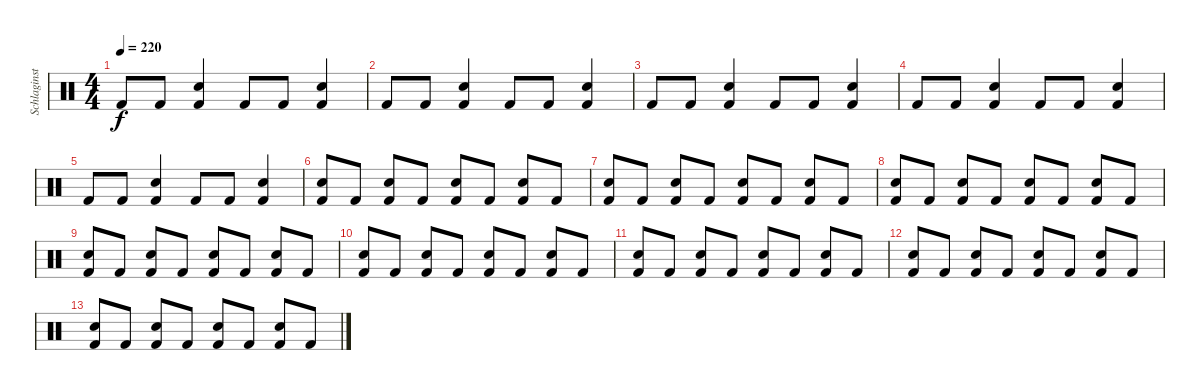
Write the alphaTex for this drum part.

\track ("Schlaginstrumente - Auswahl" "Schlaginst") {instrument percussion}
\staff {score}
\articulation defaults
\ts (4 4)
\tempo 220
\clef neutral
\ks c "Kick (hit) 2".8{dy f} "Kick (hit) 2".8
("Snare (hit) 2" "Kick (hit) 2").4 "Kick (hit) 2".8 "Kick (hit) 2".8 ("Snare (hit) 2" "Kick (hit) 2").4 |
"Kick (hit) 2".8 "Kick (hit) 2".8 ("Snare (hit) 2" "Kick (hit) 2").4 "Kick (hit) 2".8 "Kick (hit) 2".8 ("Snare (hit) 2" "Kick (hit) 2").4 |
"Kick (hit) 2".8 "Kick (hit) 2".8 ("Snare (hit) 2" "Kick (hit) 2").4 "Kick (hit) 2".8 "Kick (hit) 2".8 ("Snare (hit) 2" "Kick (hit) 2").4 |
"Kick (hit) 2".8 "Kick (hit) 2".8 ("Snare (hit) 2" "Kick (hit) 2").4 "Kick (hit) 2".8 "Kick (hit) 2".8 ("Snare (hit) 2" "Kick (hit) 2").4 |
"Kick (hit) 2".8 "Kick (hit) 2".8 ("Snare (hit) 2" "Kick (hit) 2").4 "Kick (hit) 2".8 "Kick (hit) 2".8 ("Snare (hit) 2" "Kick (hit) 2").4 |
("Snare (hit) 2" "Kick (hit) 2").8 "Kick (hit) 2".8 ("Snare (hit) 2" "Kick (hit) 2").8 "Kick (hit) 2".8 ("Snare (hit) 2" "Kick (hit) 2").8 "Kick (hit) 2".8 ("Snare (hit) 2" "Kick (hit) 2").8 "Kick (hit) 2".8 |
("Snare (hit) 2" "Kick (hit) 2").8 "Kick (hit) 2".8 ("Snare (hit) 2" "Kick (hit) 2").8 "Kick (hit) 2".8 ("Snare (hit) 2" "Kick (hit) 2").8 "Kick (hit) 2".8 ("Snare (hit) 2" "Kick (hit) 2").8 "Kick (hit) 2".8 |
("Snare (hit) 2" "Kick (hit) 2").8 "Kick (hit) 2".8 ("Snare (hit) 2" "Kick (hit) 2").8 "Kick (hit) 2".8 ("Snare (hit) 2" "Kick (hit) 2").8 "Kick (hit) 2".8 ("Snare (hit) 2" "Kick (hit) 2").8 "Kick (hit) 2".8 |
("Snare (hit) 2" "Kick (hit) 2").8 "Kick (hit) 2".8 ("Snare (hit) 2" "Kick (hit) 2").8 "Kick (hit) 2".8 ("Snare (hit) 2" "Kick (hit) 2").8 "Kick (hit) 2".8 ("Snare (hit) 2" "Kick (hit) 2").8 "Kick (hit) 2".8 |
("Snare (hit) 2" "Kick (hit) 2").8 "Kick (hit) 2".8 ("Snare (hit) 2" "Kick (hit) 2").8 "Kick (hit) 2".8 ("Snare (hit) 2" "Kick (hit) 2").8 "Kick (hit) 2".8 ("Snare (hit) 2" "Kick (hit) 2").8 "Kick (hit) 2".8 |
("Snare (hit) 2" "Kick (hit) 2").8 "Kick (hit) 2".8 ("Snare (hit) 2" "Kick (hit) 2").8 "Kick (hit) 2".8 ("Snare (hit) 2" "Kick (hit) 2").8 "Kick (hit) 2".8 ("Snare (hit) 2" "Kick (hit) 2").8 "Kick (hit) 2".8 |
("Snare (hit) 2" "Kick (hit) 2").8 "Kick (hit) 2".8 ("Snare (hit) 2" "Kick (hit) 2").8 "Kick (hit) 2".8 ("Snare (hit) 2" "Kick (hit) 2").8 "Kick (hit) 2".8 ("Snare (hit) 2" "Kick (hit) 2").8 "Kick (hit) 2".8 |
("Snare (hit) 2" "Kick (hit) 2").8 "Kick (hit) 2".8 ("Snare (hit) 2" "Kick (hit) 2").8 "Kick (hit) 2".8 ("Snare (hit) 2" "Kick (hit) 2").8 "Kick (hit) 2".8 ("Snare (hit) 2" "Kick (hit) 2").8 "Kick (hit) 2".8
